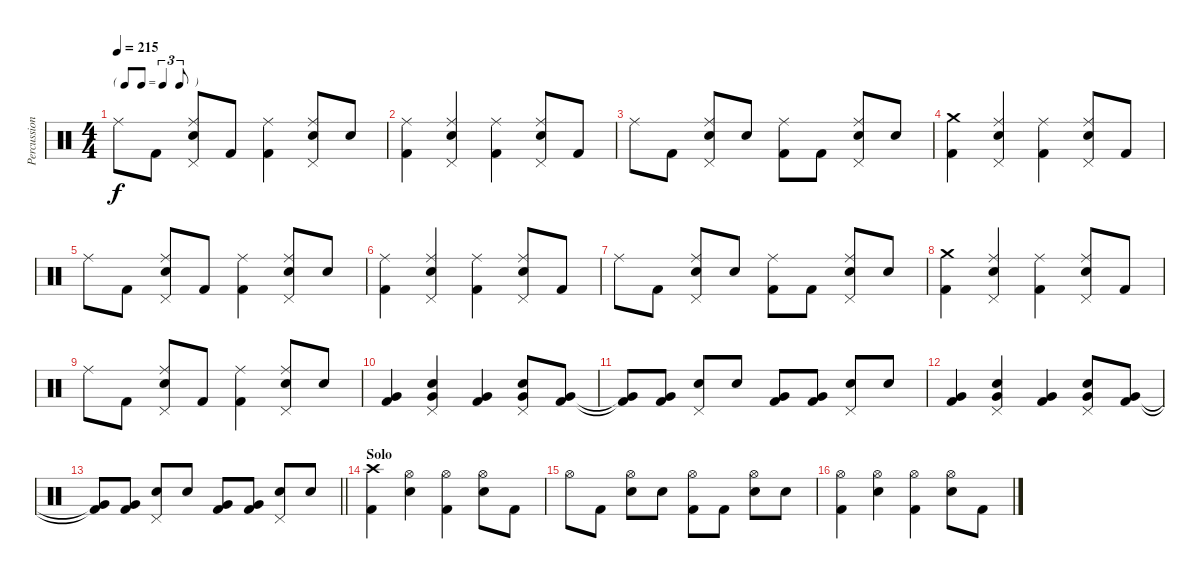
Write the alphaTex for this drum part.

\track ("Percussion" "Percussion") {instrument percussion}
\staff {score}
\articulation defaults
\ts (4 4)
\tf triplet8th
\tempo 215
\clef neutral
\ks c "Ride (middle)".8{dy f} "Kick (hit) 2".8
("Ride (middle)" "Snare (hit) 2" "Pedal Hi-Hat (hit)").8 "Kick (hit) 2".8 ("Ride (middle)" "Kick (hit) 2").4 ("Ride (middle)" "Snare (hit) 2" "Pedal Hi-Hat (hit)").8 "Snare (hit) 2".8 |
("Ride (middle)" "Kick (hit) 2").4 ("Ride (middle)" "Snare (hit) 2" "Pedal Hi-Hat (hit)").4 ("Ride (middle)" "Kick (hit) 2").4 ("Ride (middle)" "Snare (hit) 2" "Pedal Hi-Hat (hit)").8 "Kick (hit) 2".8 |
"Ride (middle)".8 "Kick (hit) 2".8 ("Ride (middle)" "Snare (hit) 2" "Pedal Hi-Hat (hit)").8 "Snare (hit) 2".8 ("Ride (middle)" "Kick (hit) 2").8 "Kick (hit) 2".8 ("Ride (middle)" "Snare (hit) 2" "Pedal Hi-Hat (hit)").8 "Snare (hit) 2".8 |
("Crash medium (hit)" "Kick (hit) 2").4 ("Ride (middle)" "Snare (hit) 2" "Pedal Hi-Hat (hit)").4 ("Ride (middle)" "Kick (hit) 2").4 ("Ride (middle)" "Snare (hit) 2" "Pedal Hi-Hat (hit)").8 "Kick (hit) 2".8 |
"Ride (middle)".8 "Kick (hit) 2".8 ("Ride (middle)" "Snare (hit) 2" "Pedal Hi-Hat (hit)").8 "Kick (hit) 2".8 ("Ride (middle)" "Kick (hit) 2").4 ("Ride (middle)" "Snare (hit) 2" "Pedal Hi-Hat (hit)").8 "Snare (hit) 2".8 |
("Ride (middle)" "Kick (hit) 2").4 ("Ride (middle)" "Snare (hit) 2" "Pedal Hi-Hat (hit)").4 ("Ride (middle)" "Kick (hit) 2").4 ("Ride (middle)" "Snare (hit) 2" "Pedal Hi-Hat (hit)").8 "Kick (hit) 2".8 |
"Ride (middle)".8 "Kick (hit) 2".8 ("Ride (middle)" "Snare (hit) 2" "Pedal Hi-Hat (hit)").8 "Snare (hit) 2".8 ("Ride (middle)" "Kick (hit) 2").8 "Kick (hit) 2".8 ("Ride (middle)" "Snare (hit) 2" "Pedal Hi-Hat (hit)").8 "Snare (hit) 2".8 |
("Crash medium (hit)" "Kick (hit) 2").4 ("Ride (middle)" "Snare (hit) 2" "Pedal Hi-Hat (hit)").4 ("Ride (middle)" "Kick (hit) 2").4 ("Ride (middle)" "Snare (hit) 2" "Pedal Hi-Hat (hit)").8 "Kick (hit) 2".8 |
"Ride (middle)".8 "Kick (hit) 2".8 ("Ride (middle)" "Snare (hit) 2" "Pedal Hi-Hat (hit)").8 "Kick (hit) 2".8 ("Ride (middle)" "Kick (hit) 2").4 ("Ride (middle)" "Snare (hit) 2" "Pedal Hi-Hat (hit)").8 "Snare (hit) 2".8 |
("Very Low Tom (hit)" "Kick (hit) 2").4 ("Snare (hit) 2" "Very Low Tom (hit)" "Pedal Hi-Hat (hit)").4 ("Very Low Tom (hit)" "Kick (hit) 2").4 ("Snare (hit) 2" "Very Low Tom (hit)" "Pedal Hi-Hat (hit)").8 ("Very Low Tom (hit)" "Kick (hit) 2").8 |
("Very Low Tom (hit)"{t} "Kick (hit) 2"{t}).8 ("Very Low Tom (hit)" "Kick (hit) 2").8 ("Snare (hit) 2" "Pedal Hi-Hat (hit)").8 "Snare (hit) 2".8 ("Very Low Tom (hit)" "Kick (hit) 2").8 ("Very Low Tom (hit)" "Kick (hit) 2").8 ("Snare (hit) 2" "Pedal Hi-Hat (hit)").8 "Snare (hit) 2".8 |
("Very Low Tom (hit)" "Kick (hit) 2").4 ("Snare (hit) 2" "Very Low Tom (hit)" "Pedal Hi-Hat (hit)").4 ("Very Low Tom (hit)" "Kick (hit) 2").4 ("Snare (hit) 2" "Very Low Tom (hit)" "Pedal Hi-Hat (hit)").8 ("Very Low Tom (hit)" "Kick (hit) 2").8 |
\barLineRight lightlight
("Very Low Tom (hit)"{t} "Kick (hit) 2"{t}).8 ("Very Low Tom (hit)" "Kick (hit) 2").8 ("Snare (hit) 2" "Pedal Hi-Hat (hit)").8 "Snare (hit) 2".8 ("Very Low Tom (hit)" "Kick (hit) 2").8 ("Very Low Tom (hit)" "Kick (hit) 2").8 ("Snare (hit) 2" "Pedal Hi-Hat (hit)").8 "Snare (hit) 2".8 |
\section ("" "Solo")
("Crash high (hit)" "Kick (hit) 2").4 ("Hi-Hat (open)" "Snare (hit) 2").4 ("Hi-Hat (open)" "Kick (hit) 2").4 ("Hi-Hat (open)" "Snare (hit) 2").8 "Kick (hit) 2".8 |
"Hi-Hat (open)".8 "Kick (hit) 2".8 ("Hi-Hat (open)" "Snare (hit) 2").8 "Snare (hit) 2".8 ("Hi-Hat (open)" "Kick (hit) 2").8 "Kick (hit) 2".8 ("Hi-Hat (open)" "Snare (hit) 2").8 "Snare (hit) 2".8 |
("Hi-Hat (open)" "Kick (hit) 2").4 ("Hi-Hat (open)" "Snare (hit) 2").4 ("Hi-Hat (open)" "Kick (hit) 2").4 ("Hi-Hat (open)" "Snare (hit) 2").8 "Kick (hit) 2".8
